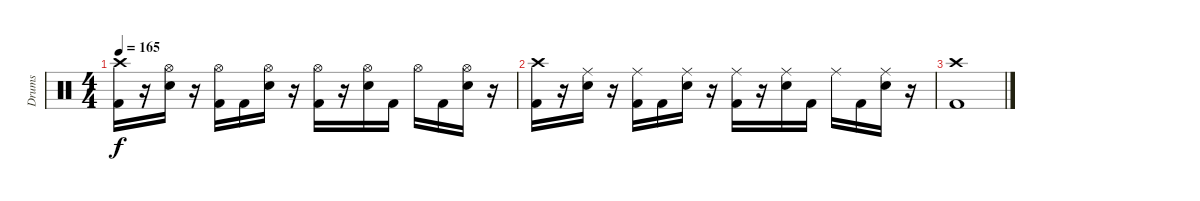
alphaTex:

\track ("Drums" "Drums") {instrument percussion}
\staff {score}
\articulation defaults
\ts (4 4)
\tempo 165
\clef neutral
\ks c
("Crash high (hit)" "Kick (hit) 2").16{dy f} r.16 ("Hi-Hat (open)" "Electric Snare (hit)").16 r.16 ("Hi-Hat (open)" "Kick (hit) 2").16 "Kick (hit) 2".16 ("Hi-Hat (open)" "Electric Snare (hit)").16 r.16 ("Hi-Hat (open)" "Kick (hit) 2").16 r.16 ("Hi-Hat (open)" "Electric Snare (hit)").16 "Kick (hit) 2".16 "Hi-Hat (open)".16 "Kick (hit) 2".16 ("Hi-Hat (open)" "Electric Snare (hit)").16 r.16 |
("Crash high (hit)" "Kick (hit) 2").16 r.16 ("Ride (middle)" "Electric Snare (hit)").16 r.16 ("Ride (middle)" "Kick (hit) 2").16 "Kick (hit) 2".16 ("Ride (middle)" "Electric Snare (hit)").16 r.16 ("Ride (middle)" "Kick (hit) 2").16 r.16 ("Ride (middle)" "Electric Snare (hit)").16 "Kick (hit) 2".16 "Ride (middle)".16 "Kick (hit) 2".16 ("Ride (middle)" "Electric Snare (hit)").16 r.16 |
("Crash high (hit)" "Kick (hit) 2").1
